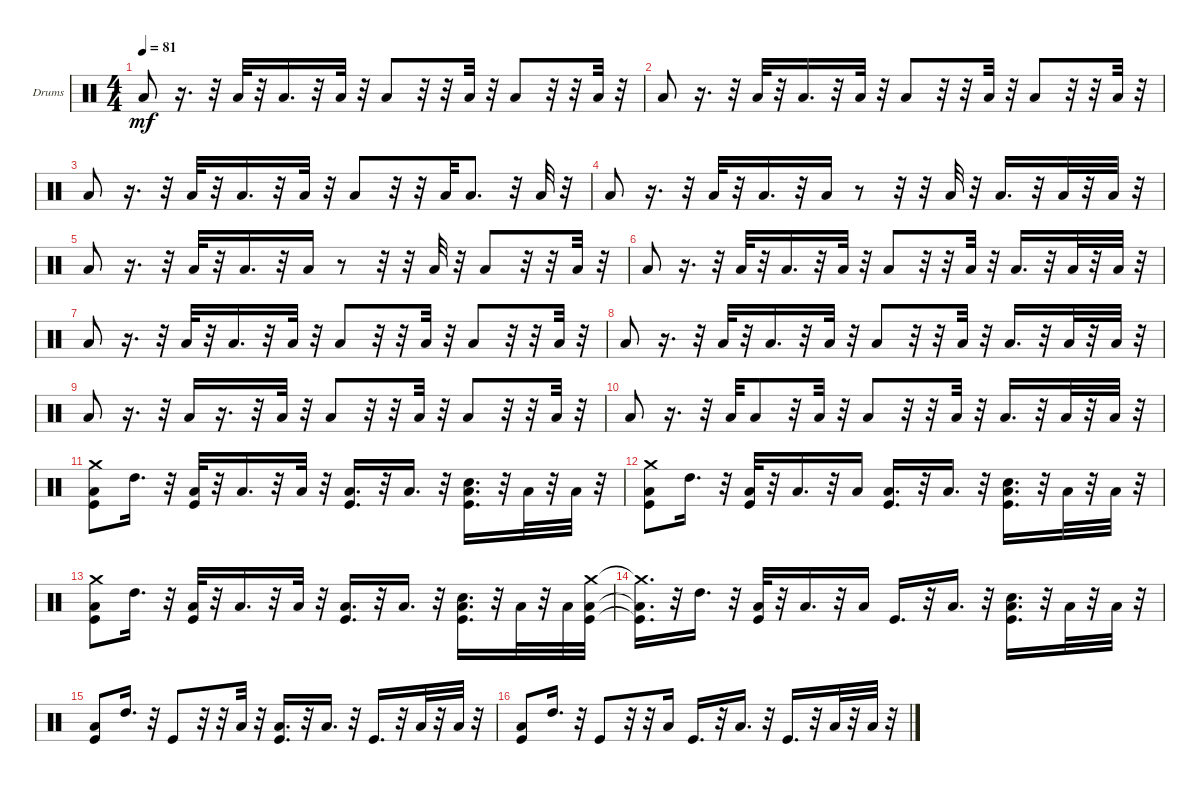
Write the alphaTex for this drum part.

\bracketExtendMode groupsimilarinstruments
\firstSystemTrackNameOrientation horizontal
\otherSystemsTrackNameOrientation horizontal
\track ("DRUMS" "Drums") {instrument percussion}
\staff {score}
\articulation defaults
\ts (4 4)
\tempo 81
\clef neutral
\ks c "Low Tom (hit)".8{dy mf}
r.16{d} r.32 "Low Tom (hit)".32 r.32 "Low Tom (hit)".16{d} r.32 "Low Tom (hit)".32 r.32 "Low Tom (hit)".8 r.32 r.32 "Low Tom (hit)".32 r.32 "Low Tom (hit)".8 r.32 r.32 "Low Tom (hit)".32 r.32 |
"Low Tom (hit)".8 r.16{d} r.32 "Low Tom (hit)".32 r.32 "Low Tom (hit)".16{d} r.32 "Low Tom (hit)".32 r.32 "Low Tom (hit)".8 r.32 r.32 "Low Tom (hit)".32 r.32 "Low Tom (hit)".8 r.32 r.32 "Low Tom (hit)".32 r.32 |
"Low Tom (hit)".8 r.16{d} r.32 "Low Tom (hit)".32 r.32 "Low Tom (hit)".16{d} r.32 "Low Tom (hit)".32 r.32 "Low Tom (hit)".8 r.32 r.32 "Low Tom (hit)".32 "Low Tom (hit)".8{d} r.32 "Low Tom (hit)".32 r.32 |
"Low Tom (hit)".8 r.16{d} r.32 "Low Tom (hit)".32 r.32 "Low Tom (hit)".16{d} r.32 "Low Tom (hit)".16 r.8 r.32 r.32 "Low Tom (hit)".32 r.32 "Low Tom (hit)".16{d} r.32 "Low Tom (hit)".32 r.32 "Low Tom (hit)".32 r.32 |
"Low Tom (hit)".8 r.16{d} r.32 "Low Tom (hit)".32 r.32 "Low Tom (hit)".16{d} r.32 "Low Tom (hit)".16 r.8 r.32 r.32 "Low Tom (hit)".32 r.32 "Low Tom (hit)".8 r.32 r.32 "Low Tom (hit)".32 r.32 |
"Low Tom (hit)".8 r.16{d} r.32 "Low Tom (hit)".32 r.32 "Low Tom (hit)".16{d} r.32 "Low Tom (hit)".32 r.32 "Low Tom (hit)".8 r.32 r.32 "Low Tom (hit)".32 r.32 "Low Tom (hit)".16{d} r.32 "Low Tom (hit)".32 r.32 "Low Tom (hit)".32 r.32 |
"Low Tom (hit)".8 r.16{d} r.32 "Low Tom (hit)".32 r.32 "Low Tom (hit)".16{d} r.32 "Low Tom (hit)".32 r.32 "Low Tom (hit)".8 r.32 r.32 "Low Tom (hit)".32 r.32 "Low Tom (hit)".8 r.32 r.32 "Low Tom (hit)".32 r.32 |
"Low Tom (hit)".8 r.16{d} r.32 "Low Tom (hit)".32 r.32 "Low Tom (hit)".16{d} r.32 "Low Tom (hit)".32 r.32 "Low Tom (hit)".8 r.32 r.32 "Low Tom (hit)".32 r.32 "Low Tom (hit)".16{d} r.32 "Low Tom (hit)".32 r.32 "Low Tom (hit)".32 r.32 |
"Low Tom (hit)".8 r.16{d} r.32 "Low Tom (hit)".16 r.16{d} r.32 "Low Tom (hit)".32 r.32 "Low Tom (hit)".8 r.32 r.32 "Low Tom (hit)".32 r.32 "Low Tom (hit)".8 r.32 r.32 "Low Tom (hit)".32 r.32 |
"Low Tom (hit)".8 r.16{d} r.32 "Low Tom (hit)".32 "Low Tom (hit)".8 r.32 "Low Tom (hit)".32 r.32 "Low Tom (hit)".8 r.32 r.32 "Low Tom (hit)".32 r.32 "Low Tom (hit)".16{d} r.32 "Low Tom (hit)".32 r.32 "Low Tom (hit)".32 r.32 |
("Kick (hit)" "Low Tom (hit)" "Crash medium (hit)").8 "High Tom (hit)".16{d} r.32 ("Kick (hit)" "Low Tom (hit)").32 r.32 "Low Tom (hit)".16{d} r.32 "Low Tom (hit)".32 r.32 ("Kick (hit)" "Low Tom (hit)").16{d} r.32 "Low Tom (hit)".16{d} r.32 ("Kick (hit)" "Snare (hit) 2" "Low Tom (hit)").16{d} r.32 "Low Tom (hit)".32 r.32 "Low Tom (hit)".32 r.32 |
("Kick (hit)" "Low Tom (hit)" "Crash medium (hit)").8 "High Tom (hit)".16{d} r.32 ("Kick (hit)" "Low Tom (hit)").32 r.32 "Low Tom (hit)".16{d} r.32 "Low Tom (hit)".16 ("Kick (hit)" "Low Tom (hit)").16{d} r.32 "Low Tom (hit)".16{d} r.32 ("Kick (hit)" "Snare (hit) 2" "Low Tom (hit)").16{d} r.32 "Low Tom (hit)".32 r.32 "Low Tom (hit)".32 r.32 |
("Kick (hit)" "Low Tom (hit)" "Crash medium (hit)").8 "High Tom (hit)".16{d} r.32 ("Kick (hit)" "Low Tom (hit)").32 r.32 "Low Tom (hit)".16{d} r.32 "Low Tom (hit)".32 r.32 ("Kick (hit)" "Low Tom (hit)").16{d} r.32 "Low Tom (hit)".16{d} r.32 ("Kick (hit)" "Snare (hit) 2" "Low Tom (hit)").16{d} r.32 "Low Tom (hit)".32 r.32 "Low Tom (hit)".32 ("Kick (hit)" "Low Tom (hit)" "Crash medium (hit)").32 |
("Kick (hit)"{t} "Low Tom (hit)"{t} "Crash medium (hit)"{t}).16{d} r.32 "High Tom (hit)".16{d} r.32 ("Kick (hit)" "Low Tom (hit)").32 r.32 "Low Tom (hit)".16{d} r.32 "Low Tom (hit)".16 "Kick (hit)".16{d} r.32 "Low Tom (hit)".16{d} r.32 ("Kick (hit)" "Snare (hit) 2" "Low Tom (hit)").16{d} r.32 "Low Tom (hit)".32 r.32 "Low Tom (hit)".32 r.32 |
("Kick (hit)" "Low Tom (hit)").8 "High Tom (hit)".16{d} r.32 "Kick (hit)".8 r.32 r.32 "Low Tom (hit)".32 r.32 ("Kick (hit)" "Low Tom (hit)").16{d} r.32 "Low Tom (hit)".16{d} r.32 "Kick (hit)".16{d} r.32 "Low Tom (hit)".32 r.32 "Low Tom (hit)".32 r.32 |
("Kick (hit)" "Low Tom (hit)").8 "High Tom (hit)".16{d} r.32 "Kick (hit)".8 r.32 r.32 "Low Tom (hit)".16 "Kick (hit)".16{d} r.32 "Low Tom (hit)".16{d} r.32 "Kick (hit)".16{d} r.32 "Low Tom (hit)".32 r.32 "Low Tom (hit)".32 r.32
